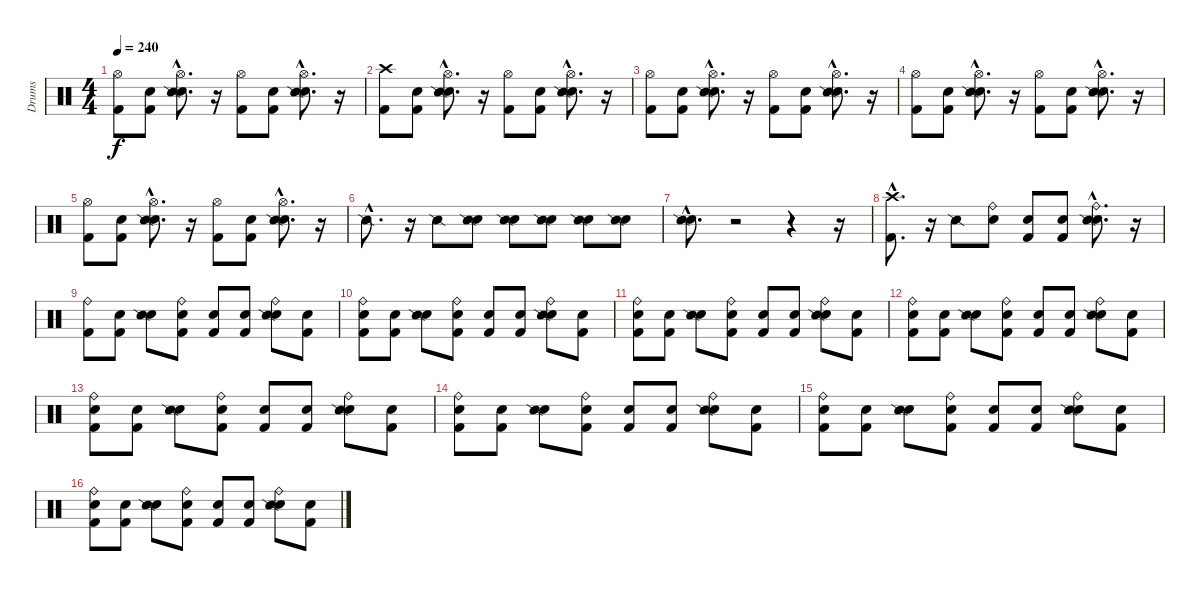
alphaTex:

\track ("Drums" "Drums") {instrument percussion}
\staff {score}
\articulation defaults
\ts (4 4)
\tempo 240
\clef neutral
\ks c
("Kick (hit) 2" "Hi-Hat (open)").8{dy f} ("Snare (hit)" "Kick (hit) 2").8 ("Snare (hit)"{hac} "Hi-Hat (open)"{hac} "Snare (side stick) 2"{hac}).8{d} r.16 ("Kick (hit) 2" "Hi-Hat (open)").8 ("Snare (hit)" "Kick (hit) 2").8 ("Snare (hit)"{hac} "Hi-Hat (open)"{hac} "Snare (side stick) 2"{hac}).8{d} r.16 |
("Kick (hit) 2" "Crash high (hit)").8 ("Snare (hit)" "Kick (hit) 2").8 ("Snare (hit)"{hac} "Hi-Hat (open)"{hac} "Snare (side stick) 2"{hac}).8{d} r.16 ("Kick (hit) 2" "Hi-Hat (open)").8 ("Snare (hit)" "Kick (hit) 2").8 ("Snare (hit)"{hac} "Hi-Hat (open)"{hac} "Snare (side stick) 2"{hac}).8{d} r.16 |
("Kick (hit) 2" "Hi-Hat (open)").8 ("Snare (hit)" "Kick (hit) 2").8 ("Snare (hit)"{hac} "Hi-Hat (open)"{hac} "Snare (side stick) 2"{hac}).8{d} r.16 ("Kick (hit) 2" "Hi-Hat (open)").8 ("Snare (hit)" "Kick (hit) 2").8 ("Snare (hit)"{hac} "Hi-Hat (open)"{hac} "Snare (side stick) 2"{hac}).8{d} r.16 |
("Kick (hit) 2" "Hi-Hat (open)").8 ("Snare (hit)" "Kick (hit) 2").8 ("Snare (hit)"{hac} "Hi-Hat (open)"{hac} "Snare (side stick) 2"{hac}).8{d} r.16 ("Kick (hit) 2" "Hi-Hat (open)").8 ("Snare (hit)" "Kick (hit) 2").8 ("Snare (hit)"{hac} "Hi-Hat (open)"{hac} "Snare (side stick) 2"{hac}).8{d} r.16 |
("Kick (hit) 2" "Hi-Hat (open)").8 ("Snare (hit)" "Kick (hit) 2").8 ("Snare (hit)"{hac} "Hi-Hat (open)"{hac} "Snare (side stick) 2"{hac}).8{d} r.16 ("Kick (hit) 2" "Hi-Hat (open)").8 ("Snare (hit)" "Kick (hit) 2").8 ("Snare (hit)"{hac} "Hi-Hat (open)"{hac} "Snare (side stick) 2"{hac}).8{d} r.16 |
"Snare (side stick) 2"{hac}.8{d} r.16 "Snare (side stick) 2".8 ("Snare (hit)" "Snare (side stick) 2").8 ("Snare (hit)" "Snare (side stick) 2").8 ("Snare (hit)" "Snare (side stick) 2").8 ("Snare (hit)" "Snare (side stick) 2").8 ("Snare (hit)" "Snare (side stick) 2").8 |
("Snare (hit)"{hac} "Snare (side stick) 2"{hac}).8{d} r.2 r.4 r.16 |
("Kick (hit) 2"{hac} "Crash high (hit)"{hac}).8{d} r.16 "Snare (side stick) 2".8 ("Snare (hit)" "Ride (bell)").8 ("Snare (hit)" "Kick (hit) 2").8 ("Snare (hit)" "Kick (hit) 2").8 ("Snare (hit)"{hac} "Snare (side stick) 2"{hac} "Ride (bell)"{hac}).8{d} r.16 |
("Kick (hit) 2" "Ride (bell)").8 ("Snare (hit)" "Kick (hit) 2").8 ("Snare (hit)" "Snare (side stick) 2").8 ("Snare (hit)" "Kick (hit) 2" "Ride (bell)").8 ("Snare (hit)" "Kick (hit) 2").8 ("Snare (hit)" "Kick (hit) 2").8 ("Snare (hit)" "Ride (bell)" "Snare (side stick) 2").8 ("Snare (hit)" "Kick (hit) 2").8 |
("Snare (hit)" "Kick (hit) 2" "Ride (bell)").8 ("Snare (hit)" "Kick (hit) 2").8 ("Snare (hit)" "Snare (side stick) 2").8 ("Snare (hit)" "Kick (hit) 2" "Ride (bell)").8 ("Snare (hit)" "Kick (hit) 2").8 ("Snare (hit)" "Kick (hit) 2").8 ("Snare (hit)" "Ride (bell)" "Snare (side stick) 2").8 ("Snare (hit)" "Kick (hit) 2").8 |
("Snare (hit)" "Kick (hit) 2" "Ride (bell)").8 ("Snare (hit)" "Kick (hit) 2").8 ("Snare (hit)" "Snare (side stick) 2").8 ("Snare (hit)" "Kick (hit) 2" "Ride (bell)").8 ("Snare (hit)" "Kick (hit) 2").8 ("Snare (hit)" "Kick (hit) 2").8 ("Snare (hit)" "Ride (bell)" "Snare (side stick) 2").8 ("Snare (hit)" "Kick (hit) 2").8 |
("Snare (hit)" "Kick (hit) 2" "Ride (bell)").8 ("Snare (hit)" "Kick (hit) 2").8 ("Snare (hit)" "Snare (side stick) 2").8 ("Snare (hit)" "Kick (hit) 2" "Ride (bell)").8 ("Snare (hit)" "Kick (hit) 2").8 ("Snare (hit)" "Kick (hit) 2").8 ("Snare (hit)" "Ride (bell)" "Snare (side stick) 2").8 ("Snare (hit)" "Kick (hit) 2").8 |
("Snare (hit)" "Kick (hit) 2" "Ride (bell)").8 ("Snare (hit)" "Kick (hit) 2").8 ("Snare (hit)" "Snare (side stick) 2").8 ("Snare (hit)" "Kick (hit) 2" "Ride (bell)").8 ("Snare (hit)" "Kick (hit) 2").8 ("Snare (hit)" "Kick (hit) 2").8 ("Snare (hit)" "Ride (bell)" "Snare (side stick) 2").8 ("Snare (hit)" "Kick (hit) 2").8 |
("Snare (hit)" "Kick (hit) 2" "Ride (bell)").8 ("Snare (hit)" "Kick (hit) 2").8 ("Snare (hit)" "Snare (side stick) 2").8 ("Snare (hit)" "Kick (hit) 2" "Ride (bell)").8 ("Snare (hit)" "Kick (hit) 2").8 ("Snare (hit)" "Kick (hit) 2").8 ("Snare (hit)" "Ride (bell)" "Snare (side stick) 2").8 ("Snare (hit)" "Kick (hit) 2").8 |
("Snare (hit)" "Kick (hit) 2" "Ride (bell)").8 ("Snare (hit)" "Kick (hit) 2").8 ("Snare (hit)" "Snare (side stick) 2").8 ("Snare (hit)" "Kick (hit) 2" "Ride (bell)").8 ("Snare (hit)" "Kick (hit) 2").8 ("Snare (hit)" "Kick (hit) 2").8 ("Snare (hit)" "Ride (bell)" "Snare (side stick) 2").8 ("Snare (hit)" "Kick (hit) 2").8 |
("Snare (hit)" "Kick (hit) 2" "Ride (bell)").8 ("Snare (hit)" "Kick (hit) 2").8 ("Snare (hit)" "Snare (side stick) 2").8 ("Snare (hit)" "Kick (hit) 2" "Ride (bell)").8 ("Snare (hit)" "Kick (hit) 2").8 ("Snare (hit)" "Kick (hit) 2").8 ("Snare (hit)" "Ride (bell)" "Snare (side stick) 2").8 ("Snare (hit)" "Kick (hit) 2").8
